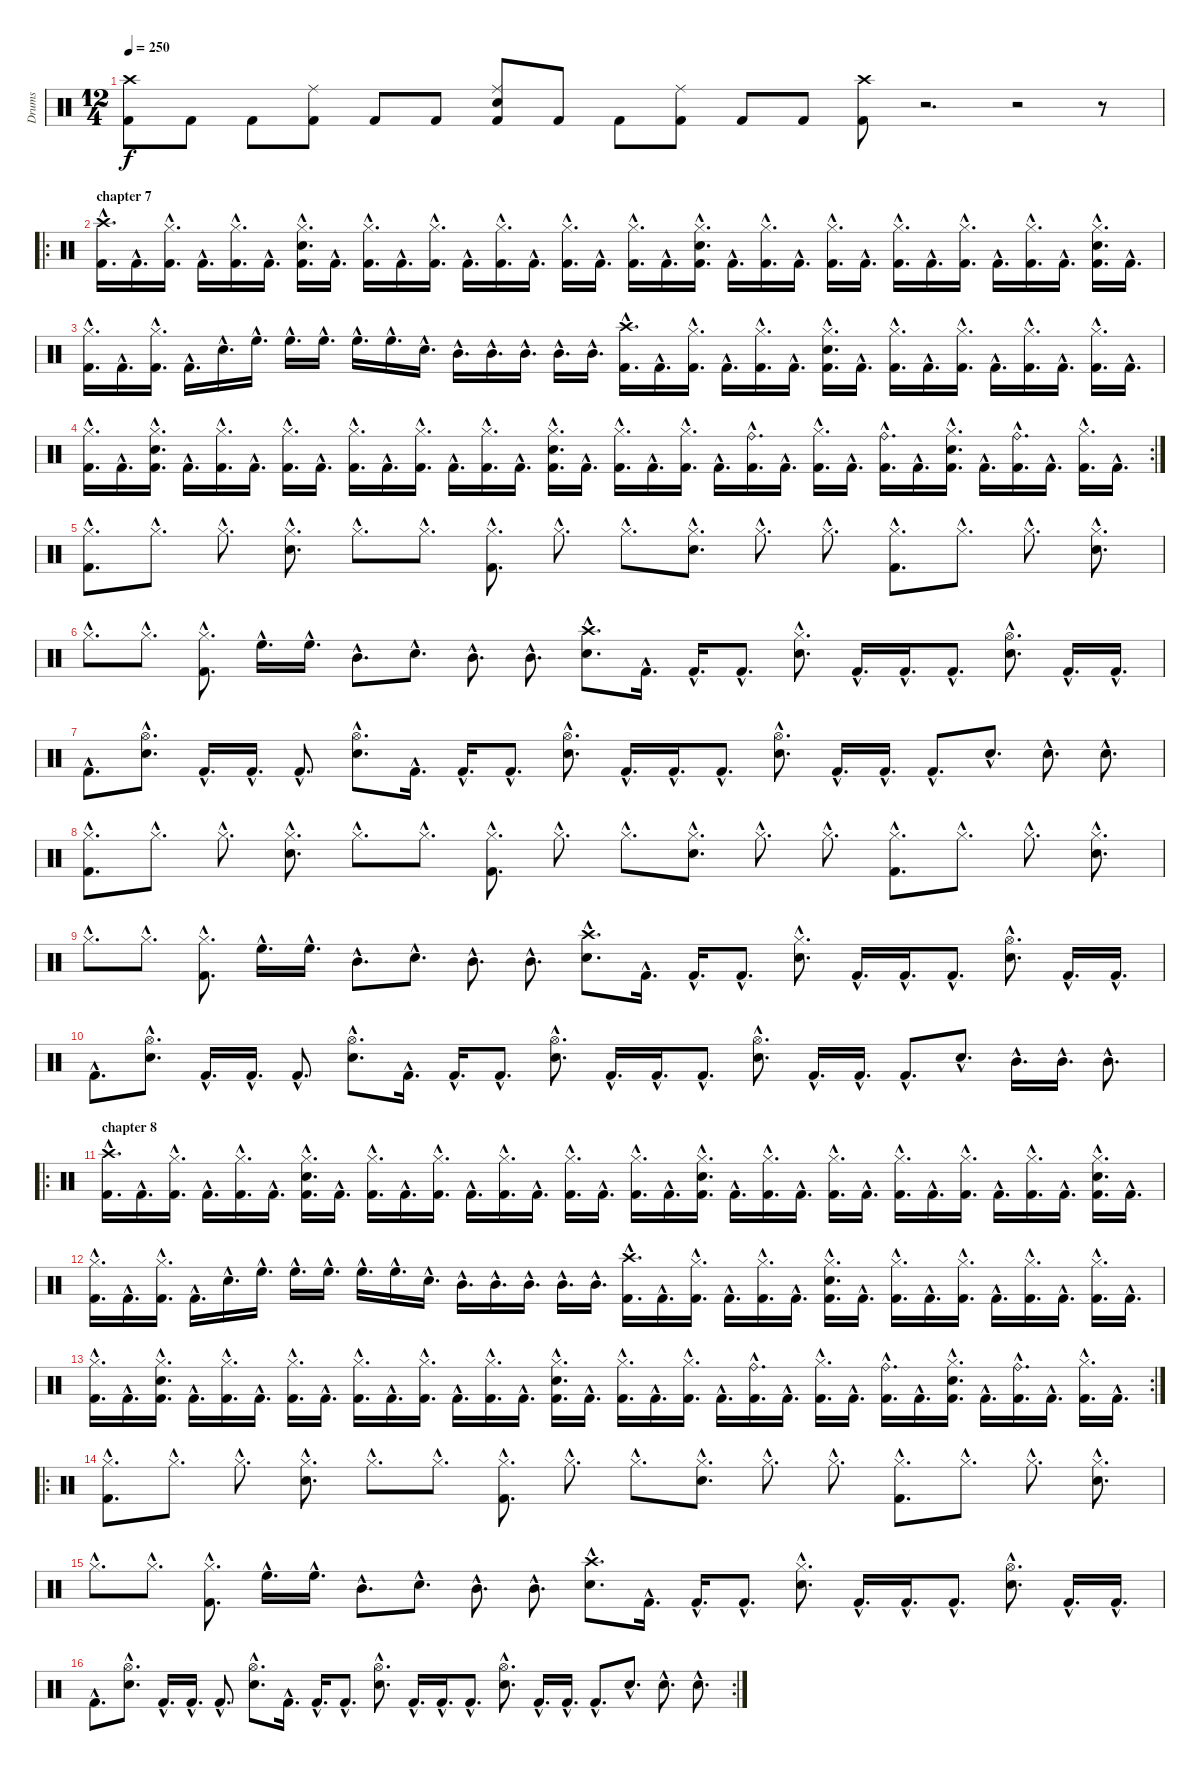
\track ("Drums" "Drums") {instrument percussion}
\staff {score}
\articulation defaults
\ts (12 4)
\tempo 250
\clef neutral
\ks c
("Crash high (hit)" "Kick (hit) 2").8{dy f} "Kick (hit) 2".8 "Kick (hit) 2".8 ("Ride (middle)" "Kick (hit) 2").8 "Kick (hit) 2".8 "Kick (hit) 2".8 ("Ride (middle)" "Snare (hit) 2" "Kick (hit) 2").8 "Kick (hit) 2".8 "Kick (hit) 2".8 ("Ride (middle)" "Kick (hit) 2").8 "Kick (hit) 2".8 "Kick (hit) 2".8 ("Crash high (hit)" "Kick (hit) 2").8 r.2{d} r.2 r.8 |
\ro
\section ("" "chapter 7")
("Crash high (hit)"{hac} "Kick (hit) 2"{hac}).16{d} "Kick (hit) 2"{hac}.16{d} ("Hi-Hat (closed)"{hac} "Kick (hit) 2"{hac}).16{d} "Kick (hit) 2"{hac}.16{d} ("Hi-Hat (closed)"{hac} "Kick (hit) 2"{hac}).16{d} "Kick (hit) 2"{hac}.16{d} ("Hi-Hat (closed)"{hac} "Snare (hit) 2"{hac} "Kick (hit) 2"{hac}).16{d} "Kick (hit) 2"{hac}.16{d} ("Hi-Hat (closed)"{hac} "Kick (hit) 2"{hac}).16{d} "Kick (hit) 2"{hac}.16{d} ("Hi-Hat (closed)"{hac} "Kick (hit) 2"{hac}).16{d} "Kick (hit) 2"{hac}.16{d} ("Hi-Hat (closed)"{hac} "Kick (hit) 2"{hac}).16{d} "Kick (hit) 2"{hac}.16{d} ("Hi-Hat (closed)"{hac} "Kick (hit) 2"{hac}).16{d} "Kick (hit) 2"{hac}.16{d} ("Hi-Hat (closed)"{hac} "Kick (hit) 2"{hac}).16{d} "Kick (hit) 2"{hac}.16{d} ("Hi-Hat (closed)"{hac} "Snare (hit) 2"{hac} "Kick (hit) 2"{hac}).16{d} "Kick (hit) 2"{hac}.16{d} ("Hi-Hat (closed)"{hac} "Kick (hit) 2"{hac}).16{d} "Kick (hit) 2"{hac}.16{d} ("Hi-Hat (closed)"{hac} "Kick (hit) 2"{hac}).16{d} "Kick (hit) 2"{hac}.16{d} ("Hi-Hat (closed)"{hac} "Kick (hit) 2"{hac}).16{d} "Kick (hit) 2"{hac}.16{d} ("Hi-Hat (closed)"{hac} "Kick (hit) 2"{hac}).16{d} "Kick (hit) 2"{hac}.16{d} ("Hi-Hat (closed)"{hac} "Kick (hit) 2"{hac}).16{d} "Kick (hit) 2"{hac}.16{d} ("Hi-Hat (closed)"{hac} "Snare (hit) 2"{hac} "Kick (hit) 2"{hac}).16{d} "Kick (hit) 2"{hac}.16{d} |
("Hi-Hat (closed)"{hac} "Kick (hit) 2"{hac}).16{d} "Kick (hit) 2"{hac}.16{d} ("Hi-Hat (closed)"{hac} "Kick (hit) 2"{hac}).16{d} "Kick (hit) 2"{hac}.16{d} "Snare (hit) 2"{hac}.16{d} "High Floor Tom (hit)"{hac}.16{d} "High Floor Tom (hit)"{hac}.16{d} "High Floor Tom (hit)"{hac}.16{d} "High Floor Tom (hit)"{hac}.16{d} "High Floor Tom (hit)"{hac}.16{d} "Snare (hit) 2"{hac}.16{d} "Mid Tom (hit)"{hac}.16{d} "Mid Tom (hit)"{hac}.16{d} "Mid Tom (hit)"{hac}.16{d} "Mid Tom (hit)"{hac}.16{d} "Mid Tom (hit)"{hac}.16{d} ("Crash high (hit)"{hac} "Kick (hit) 2"{hac}).16{d} "Kick (hit) 2"{hac}.16{d} ("Hi-Hat (closed)"{hac} "Kick (hit) 2"{hac}).16{d} "Kick (hit) 2"{hac}.16{d} ("Hi-Hat (closed)"{hac} "Kick (hit) 2"{hac}).16{d} "Kick (hit) 2"{hac}.16{d} ("Hi-Hat (closed)"{hac} "Snare (hit) 2"{hac} "Kick (hit) 2"{hac}).16{d} "Kick (hit) 2"{hac}.16{d} ("Hi-Hat (closed)"{hac} "Kick (hit) 2"{hac}).16{d} "Kick (hit) 2"{hac}.16{d} ("Hi-Hat (closed)"{hac} "Kick (hit) 2"{hac}).16{d} "Kick (hit) 2"{hac}.16{d} ("Hi-Hat (closed)"{hac} "Kick (hit) 2"{hac}).16{d} "Kick (hit) 2"{hac}.16{d} ("Hi-Hat (closed)"{hac} "Kick (hit) 2"{hac}).16{d} "Kick (hit) 2"{hac}.16{d} |
\rc 2
("Hi-Hat (closed)"{hac} "Kick (hit) 2"{hac}).16{d} "Kick (hit) 2"{hac}.16{d} ("Hi-Hat (closed)"{hac} "Snare (hit) 2"{hac} "Kick (hit) 2"{hac}).16{d} "Kick (hit) 2"{hac}.16{d} ("Hi-Hat (closed)"{hac} "Kick (hit) 2"{hac}).16{d} "Kick (hit) 2"{hac}.16{d} ("Hi-Hat (closed)"{hac} "Kick (hit) 2"{hac}).16{d} "Kick (hit) 2"{hac}.16{d} ("Hi-Hat (closed)"{hac} "Kick (hit) 2"{hac}).16{d} "Kick (hit) 2"{hac}.16{d} ("Hi-Hat (closed)"{hac} "Kick (hit) 2"{hac}).16{d} "Kick (hit) 2"{hac}.16{d} ("Hi-Hat (closed)"{hac} "Kick (hit) 2"{hac}).16{d} "Kick (hit) 2"{hac}.16{d} ("Hi-Hat (closed)"{hac} "Snare (hit) 2"{hac} "Kick (hit) 2"{hac}).16{d} "Kick (hit) 2"{hac}.16{d} ("Hi-Hat (closed)"{hac} "Kick (hit) 2"{hac}).16{d} "Kick (hit) 2"{hac}.16{d} ("Hi-Hat (closed)"{hac} "Kick (hit) 2"{hac}).16{d} "Kick (hit) 2"{hac}.16{d} ("Ride (bell)"{hac} "Kick (hit) 2"{hac}).16{d} "Kick (hit) 2"{hac}.16{d} ("Hi-Hat (closed)"{hac} "Kick (hit) 2"{hac}).16{d} "Kick (hit) 2"{hac}.16{d} ("Ride (bell)"{hac} "Kick (hit) 2"{hac}).16{d} "Kick (hit) 2"{hac}.16{d} ("Hi-Hat (closed)"{hac} "Snare (hit) 2"{hac} "Kick (hit) 2"{hac}).16{d} "Kick (hit) 2"{hac}.16{d} ("Ride (bell)"{hac} "Kick (hit) 2"{hac}).16{d} "Kick (hit) 2"{hac}.16{d} ("Hi-Hat (closed)"{hac} "Kick (hit) 2"{hac}).16{d} "Kick (hit) 2"{hac}.16{d} |
("Hi-Hat (closed)"{hac} "Kick (hit) 2"{hac}).8{d} "Hi-Hat (closed)"{hac}.8{d} "Hi-Hat (closed)"{hac}.8{d} ("Hi-Hat (closed)"{hac} "Snare (hit) 2"{hac}).8{d} "Hi-Hat (closed)"{hac}.8{d} "Hi-Hat (closed)"{hac}.8{d} ("Hi-Hat (closed)"{hac} "Kick (hit) 2"{hac}).8{d} "Hi-Hat (closed)"{hac}.8{d} "Hi-Hat (closed)"{hac}.8{d} ("Hi-Hat (closed)"{hac} "Snare (hit) 2"{hac}).8{d} "Hi-Hat (closed)"{hac}.8{d} "Hi-Hat (closed)"{hac}.8{d} ("Hi-Hat (closed)"{hac} "Kick (hit) 2"{hac}).8{d} "Hi-Hat (closed)"{hac}.8{d} "Hi-Hat (closed)"{hac}.8{d} ("Hi-Hat (closed)"{hac} "Snare (hit) 2"{hac}).8{d} |
"Hi-Hat (closed)"{hac}.8{d} "Hi-Hat (closed)"{hac}.8{d} ("Hi-Hat (closed)"{hac} "Kick (hit) 2"{hac}).8{d} "High Floor Tom (hit)"{hac}.16{d} "High Floor Tom (hit)"{hac}.16{d} "Mid Tom (hit)"{hac}.8{d} "Snare (hit) 2"{hac}.8{d} "Mid Tom (hit)"{hac}.8{d} "Mid Tom (hit)"{hac}.8{d} ("Crash high (hit)"{hac} "Snare (hit) 2"{hac}).8{d} "Kick (hit) 2"{hac}.16{d} "Kick (hit) 2"{hac}.16{d} "Kick (hit) 2"{hac}.8{d} ("Hi-Hat (closed)"{hac} "Snare (hit) 2"{hac}).8{d} "Kick (hit) 2"{hac}.16{d} "Kick (hit) 2"{hac}.16{d} "Kick (hit) 2"{hac}.8{d} ("Hi-Hat (open)"{hac} "Snare (hit) 2"{hac}).8{d} "Kick (hit) 2"{hac}.16{d} "Kick (hit) 2"{hac}.16{d} |
"Kick (hit) 2"{hac}.8{d} ("Hi-Hat (open)"{hac} "Snare (hit) 2"{hac}).8{d} "Kick (hit) 2"{hac}.16{d} "Kick (hit) 2"{hac}.16{d} "Kick (hit) 2"{hac}.8{d} ("Hi-Hat (open)"{hac} "Snare (hit) 2"{hac}).8{d} "Kick (hit) 2"{hac}.16{d} "Kick (hit) 2"{hac}.16{d} "Kick (hit) 2"{hac}.8{d} ("Hi-Hat (open)"{hac} "Snare (hit) 2"{hac}).8{d} "Kick (hit) 2"{hac}.16{d} "Kick (hit) 2"{hac}.16{d} "Kick (hit) 2"{hac}.8{d} ("Hi-Hat (open)"{hac} "Snare (hit) 2"{hac}).8{d} "Kick (hit) 2"{hac}.16{d} "Kick (hit) 2"{hac}.16{d} "Kick (hit) 2"{hac}.8{d} "Snare (hit) 2"{hac}.8{d} "Snare (hit) 2"{hac}.8{d} "Snare (hit) 2"{hac}.8{d} |
("Hi-Hat (closed)"{hac} "Kick (hit) 2"{hac}).8{d} "Hi-Hat (closed)"{hac}.8{d} "Hi-Hat (closed)"{hac}.8{d} ("Hi-Hat (closed)"{hac} "Snare (hit) 2"{hac}).8{d} "Hi-Hat (closed)"{hac}.8{d} "Hi-Hat (closed)"{hac}.8{d} ("Hi-Hat (closed)"{hac} "Kick (hit) 2"{hac}).8{d} "Hi-Hat (closed)"{hac}.8{d} "Hi-Hat (closed)"{hac}.8{d} ("Hi-Hat (closed)"{hac} "Snare (hit) 2"{hac}).8{d} "Hi-Hat (closed)"{hac}.8{d} "Hi-Hat (closed)"{hac}.8{d} ("Hi-Hat (closed)"{hac} "Kick (hit) 2"{hac}).8{d} "Hi-Hat (closed)"{hac}.8{d} "Hi-Hat (closed)"{hac}.8{d} ("Hi-Hat (closed)"{hac} "Snare (hit) 2"{hac}).8{d} |
"Hi-Hat (closed)"{hac}.8{d} "Hi-Hat (closed)"{hac}.8{d} ("Hi-Hat (closed)"{hac} "Kick (hit) 2"{hac}).8{d} "High Floor Tom (hit)"{hac}.16{d} "High Floor Tom (hit)"{hac}.16{d} "Mid Tom (hit)"{hac}.8{d} "Snare (hit) 2"{hac}.8{d} "Mid Tom (hit)"{hac}.8{d} "Mid Tom (hit)"{hac}.8{d} ("Crash high (hit)"{hac} "Snare (hit) 2"{hac}).8{d} "Kick (hit) 2"{hac}.16{d} "Kick (hit) 2"{hac}.16{d} "Kick (hit) 2"{hac}.8{d} ("Hi-Hat (closed)"{hac} "Snare (hit) 2"{hac}).8{d} "Kick (hit) 2"{hac}.16{d} "Kick (hit) 2"{hac}.16{d} "Kick (hit) 2"{hac}.8{d} ("Hi-Hat (open)"{hac} "Snare (hit) 2"{hac}).8{d} "Kick (hit) 2"{hac}.16{d} "Kick (hit) 2"{hac}.16{d} |
"Kick (hit) 2"{hac}.8{d} ("Hi-Hat (open)"{hac} "Snare (hit) 2"{hac}).8{d} "Kick (hit) 2"{hac}.16{d} "Kick (hit) 2"{hac}.16{d} "Kick (hit) 2"{hac}.8{d} ("Hi-Hat (open)"{hac} "Snare (hit) 2"{hac}).8{d} "Kick (hit) 2"{hac}.16{d} "Kick (hit) 2"{hac}.16{d} "Kick (hit) 2"{hac}.8{d} ("Hi-Hat (open)"{hac} "Snare (hit) 2"{hac}).8{d} "Kick (hit) 2"{hac}.16{d} "Kick (hit) 2"{hac}.16{d} "Kick (hit) 2"{hac}.8{d} ("Hi-Hat (open)"{hac} "Snare (hit) 2"{hac}).8{d} "Kick (hit) 2"{hac}.16{d} "Kick (hit) 2"{hac}.16{d} "Kick (hit) 2"{hac}.8{d} "Snare (hit) 2"{hac}.8{d} "Mid Tom (hit)"{hac}.16{d} "Mid Tom (hit)"{hac}.16{d} "Mid Tom (hit)"{hac}.8{d} |
\ro
\section ("" "chapter 8")
("Crash high (hit)"{hac} "Kick (hit) 2"{hac}).16{d} "Kick (hit) 2"{hac}.16{d} ("Hi-Hat (closed)"{hac} "Kick (hit) 2"{hac}).16{d} "Kick (hit) 2"{hac}.16{d} ("Hi-Hat (closed)"{hac} "Kick (hit) 2"{hac}).16{d} "Kick (hit) 2"{hac}.16{d} ("Hi-Hat (closed)"{hac} "Snare (hit) 2"{hac} "Kick (hit) 2"{hac}).16{d} "Kick (hit) 2"{hac}.16{d} ("Hi-Hat (closed)"{hac} "Kick (hit) 2"{hac}).16{d} "Kick (hit) 2"{hac}.16{d} ("Hi-Hat (closed)"{hac} "Kick (hit) 2"{hac}).16{d} "Kick (hit) 2"{hac}.16{d} ("Hi-Hat (closed)"{hac} "Kick (hit) 2"{hac}).16{d} "Kick (hit) 2"{hac}.16{d} ("Hi-Hat (closed)"{hac} "Kick (hit) 2"{hac}).16{d} "Kick (hit) 2"{hac}.16{d} ("Hi-Hat (closed)"{hac} "Kick (hit) 2"{hac}).16{d} "Kick (hit) 2"{hac}.16{d} ("Hi-Hat (closed)"{hac} "Snare (hit) 2"{hac} "Kick (hit) 2"{hac}).16{d} "Kick (hit) 2"{hac}.16{d} ("Hi-Hat (closed)"{hac} "Kick (hit) 2"{hac}).16{d} "Kick (hit) 2"{hac}.16{d} ("Hi-Hat (closed)"{hac} "Kick (hit) 2"{hac}).16{d} "Kick (hit) 2"{hac}.16{d} ("Hi-Hat (closed)"{hac} "Kick (hit) 2"{hac}).16{d} "Kick (hit) 2"{hac}.16{d} ("Hi-Hat (closed)"{hac} "Kick (hit) 2"{hac}).16{d} "Kick (hit) 2"{hac}.16{d} ("Hi-Hat (closed)"{hac} "Kick (hit) 2"{hac}).16{d} "Kick (hit) 2"{hac}.16{d} ("Hi-Hat (closed)"{hac} "Snare (hit) 2"{hac} "Kick (hit) 2"{hac}).16{d} "Kick (hit) 2"{hac}.16{d} |
("Hi-Hat (closed)"{hac} "Kick (hit) 2"{hac}).16{d} "Kick (hit) 2"{hac}.16{d} ("Hi-Hat (closed)"{hac} "Kick (hit) 2"{hac}).16{d} "Kick (hit) 2"{hac}.16{d} "Snare (hit) 2"{hac}.16{d} "High Floor Tom (hit)"{hac}.16{d} "High Floor Tom (hit)"{hac}.16{d} "High Floor Tom (hit)"{hac}.16{d} "High Floor Tom (hit)"{hac}.16{d} "High Floor Tom (hit)"{hac}.16{d} "Snare (hit) 2"{hac}.16{d} "Mid Tom (hit)"{hac}.16{d} "Mid Tom (hit)"{hac}.16{d} "Mid Tom (hit)"{hac}.16{d} "Mid Tom (hit)"{hac}.16{d} "Mid Tom (hit)"{hac}.16{d} ("Crash high (hit)"{hac} "Kick (hit) 2"{hac}).16{d} "Kick (hit) 2"{hac}.16{d} ("Hi-Hat (closed)"{hac} "Kick (hit) 2"{hac}).16{d} "Kick (hit) 2"{hac}.16{d} ("Hi-Hat (closed)"{hac} "Kick (hit) 2"{hac}).16{d} "Kick (hit) 2"{hac}.16{d} ("Hi-Hat (closed)"{hac} "Snare (hit) 2"{hac} "Kick (hit) 2"{hac}).16{d} "Kick (hit) 2"{hac}.16{d} ("Hi-Hat (closed)"{hac} "Kick (hit) 2"{hac}).16{d} "Kick (hit) 2"{hac}.16{d} ("Hi-Hat (closed)"{hac} "Kick (hit) 2"{hac}).16{d} "Kick (hit) 2"{hac}.16{d} ("Hi-Hat (closed)"{hac} "Kick (hit) 2"{hac}).16{d} "Kick (hit) 2"{hac}.16{d} ("Hi-Hat (closed)"{hac} "Kick (hit) 2"{hac}).16{d} "Kick (hit) 2"{hac}.16{d} |
\rc 2
("Hi-Hat (closed)"{hac} "Kick (hit) 2"{hac}).16{d} "Kick (hit) 2"{hac}.16{d} ("Hi-Hat (closed)"{hac} "Snare (hit) 2"{hac} "Kick (hit) 2"{hac}).16{d} "Kick (hit) 2"{hac}.16{d} ("Hi-Hat (closed)"{hac} "Kick (hit) 2"{hac}).16{d} "Kick (hit) 2"{hac}.16{d} ("Hi-Hat (closed)"{hac} "Kick (hit) 2"{hac}).16{d} "Kick (hit) 2"{hac}.16{d} ("Hi-Hat (closed)"{hac} "Kick (hit) 2"{hac}).16{d} "Kick (hit) 2"{hac}.16{d} ("Hi-Hat (closed)"{hac} "Kick (hit) 2"{hac}).16{d} "Kick (hit) 2"{hac}.16{d} ("Hi-Hat (closed)"{hac} "Kick (hit) 2"{hac}).16{d} "Kick (hit) 2"{hac}.16{d} ("Hi-Hat (closed)"{hac} "Snare (hit) 2"{hac} "Kick (hit) 2"{hac}).16{d} "Kick (hit) 2"{hac}.16{d} ("Hi-Hat (closed)"{hac} "Kick (hit) 2"{hac}).16{d} "Kick (hit) 2"{hac}.16{d} ("Hi-Hat (closed)"{hac} "Kick (hit) 2"{hac}).16{d} "Kick (hit) 2"{hac}.16{d} ("Ride (bell)"{hac} "Kick (hit) 2"{hac}).16{d} "Kick (hit) 2"{hac}.16{d} ("Hi-Hat (closed)"{hac} "Kick (hit) 2"{hac}).16{d} "Kick (hit) 2"{hac}.16{d} ("Ride (bell)"{hac} "Kick (hit) 2"{hac}).16{d} "Kick (hit) 2"{hac}.16{d} ("Hi-Hat (closed)"{hac} "Snare (hit) 2"{hac} "Kick (hit) 2"{hac}).16{d} "Kick (hit) 2"{hac}.16{d} ("Ride (bell)"{hac} "Kick (hit) 2"{hac}).16{d} "Kick (hit) 2"{hac}.16{d} ("Hi-Hat (closed)"{hac} "Kick (hit) 2"{hac}).16{d} "Kick (hit) 2"{hac}.16{d} |
\ro
("Hi-Hat (closed)"{hac} "Kick (hit) 2"{hac}).8{d} "Hi-Hat (closed)"{hac}.8{d} "Hi-Hat (closed)"{hac}.8{d} ("Hi-Hat (closed)"{hac} "Snare (hit) 2"{hac}).8{d} "Hi-Hat (closed)"{hac}.8{d} "Hi-Hat (closed)"{hac}.8{d} ("Hi-Hat (closed)"{hac} "Kick (hit) 2"{hac}).8{d} "Hi-Hat (closed)"{hac}.8{d} "Hi-Hat (closed)"{hac}.8{d} ("Hi-Hat (closed)"{hac} "Snare (hit) 2"{hac}).8{d} "Hi-Hat (closed)"{hac}.8{d} "Hi-Hat (closed)"{hac}.8{d} ("Hi-Hat (closed)"{hac} "Kick (hit) 2"{hac}).8{d} "Hi-Hat (closed)"{hac}.8{d} "Hi-Hat (closed)"{hac}.8{d} ("Hi-Hat (closed)"{hac} "Snare (hit) 2"{hac}).8{d} |
"Hi-Hat (closed)"{hac}.8{d} "Hi-Hat (closed)"{hac}.8{d} ("Hi-Hat (closed)"{hac} "Kick (hit) 2"{hac}).8{d} "High Floor Tom (hit)"{hac}.16{d} "High Floor Tom (hit)"{hac}.16{d} "Mid Tom (hit)"{hac}.8{d} "Snare (hit) 2"{hac}.8{d} "Mid Tom (hit)"{hac}.8{d} "Mid Tom (hit)"{hac}.8{d} ("Crash high (hit)"{hac} "Snare (hit) 2"{hac}).8{d} "Kick (hit) 2"{hac}.16{d} "Kick (hit) 2"{hac}.16{d} "Kick (hit) 2"{hac}.8{d} ("Hi-Hat (closed)"{hac} "Snare (hit) 2"{hac}).8{d} "Kick (hit) 2"{hac}.16{d} "Kick (hit) 2"{hac}.16{d} "Kick (hit) 2"{hac}.8{d} ("Hi-Hat (open)"{hac} "Snare (hit) 2"{hac}).8{d} "Kick (hit) 2"{hac}.16{d} "Kick (hit) 2"{hac}.16{d} |
\rc 2 "Kick (hit) 2"{hac}.8{d}
("Hi-Hat (open)"{hac} "Snare (hit) 2"{hac}).8{d} "Kick (hit) 2"{hac}.16{d} "Kick (hit) 2"{hac}.16{d} "Kick (hit) 2"{hac}.8{d} ("Hi-Hat (open)"{hac} "Snare (hit) 2"{hac}).8{d} "Kick (hit) 2"{hac}.16{d} "Kick (hit) 2"{hac}.16{d} "Kick (hit) 2"{hac}.8{d} ("Hi-Hat (open)"{hac} "Snare (hit) 2"{hac}).8{d} "Kick (hit) 2"{hac}.16{d} "Kick (hit) 2"{hac}.16{d} "Kick (hit) 2"{hac}.8{d} ("Hi-Hat (open)"{hac} "Snare (hit) 2"{hac}).8{d} "Kick (hit) 2"{hac}.16{d} "Kick (hit) 2"{hac}.16{d} "Kick (hit) 2"{hac}.8{d} "Snare (hit) 2"{hac}.8{d} "Snare (hit) 2"{hac}.8{d} "Snare (hit) 2"{hac}.8{d}
